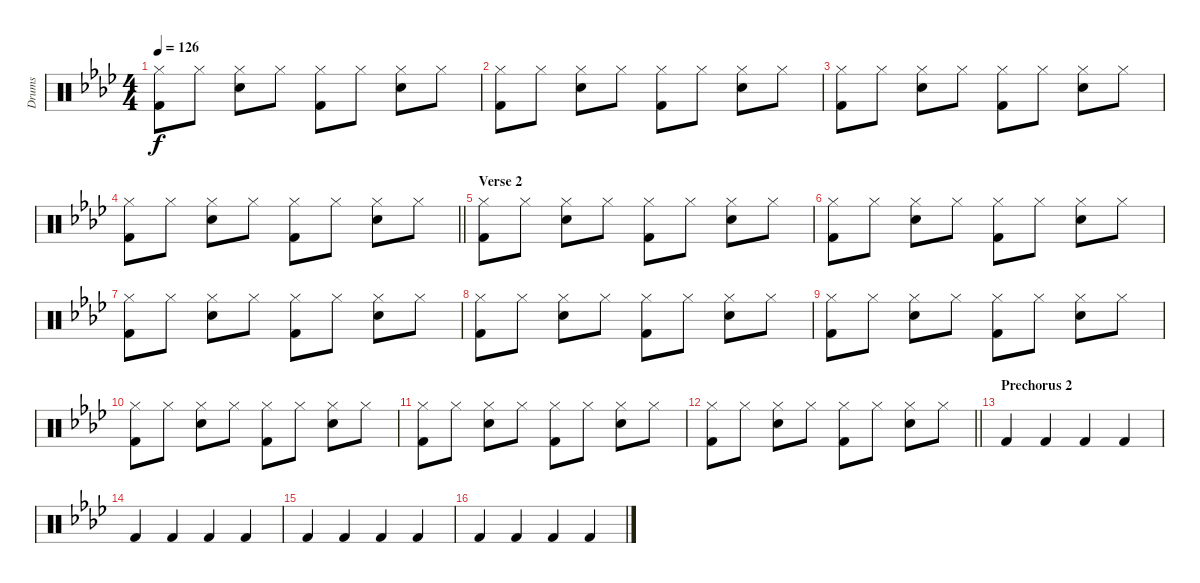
\track ("Drums" "Drums") {instrument percussion}
\staff {score}
\articulation defaults
\ts (4 4)
\tempo 126
\clef neutral
\ks ab
("Hi-Hat (closed)" "Kick (hit) 2").8{dy f} "Hi-Hat (closed)".8 ("Hi-Hat (closed)" "Electric Snare (hit)").8 "Hi-Hat (closed)".8 ("Hi-Hat (closed)" "Kick (hit) 2").8 "Hi-Hat (closed)".8 ("Hi-Hat (closed)" "Electric Snare (hit)").8 "Hi-Hat (closed)".8 |
("Hi-Hat (closed)" "Kick (hit) 2").8 "Hi-Hat (closed)".8 ("Hi-Hat (closed)" "Electric Snare (hit)").8 "Hi-Hat (closed)".8 ("Hi-Hat (closed)" "Kick (hit) 2").8 "Hi-Hat (closed)".8 ("Hi-Hat (closed)" "Electric Snare (hit)").8 "Hi-Hat (closed)".8 |
("Hi-Hat (closed)" "Kick (hit) 2").8 "Hi-Hat (closed)".8 ("Hi-Hat (closed)" "Electric Snare (hit)").8 "Hi-Hat (closed)".8 ("Hi-Hat (closed)" "Kick (hit) 2").8 "Hi-Hat (closed)".8 ("Hi-Hat (closed)" "Electric Snare (hit)").8 "Hi-Hat (closed)".8 |
\barLineRight lightlight
("Hi-Hat (closed)" "Kick (hit) 2").8 "Hi-Hat (closed)".8 ("Hi-Hat (closed)" "Electric Snare (hit)").8 "Hi-Hat (closed)".8 ("Hi-Hat (closed)" "Kick (hit) 2").8 "Hi-Hat (closed)".8 ("Hi-Hat (closed)" "Electric Snare (hit)").8 "Hi-Hat (closed)".8 |
\section ("" "Verse 2")
("Hi-Hat (closed)" "Kick (hit) 2").8 "Hi-Hat (closed)".8 ("Hi-Hat (closed)" "Electric Snare (hit)").8 "Hi-Hat (closed)".8 ("Hi-Hat (closed)" "Kick (hit) 2").8 "Hi-Hat (closed)".8 ("Hi-Hat (closed)" "Electric Snare (hit)").8 "Hi-Hat (closed)".8 |
("Hi-Hat (closed)" "Kick (hit) 2").8 "Hi-Hat (closed)".8 ("Hi-Hat (closed)" "Electric Snare (hit)").8 "Hi-Hat (closed)".8 ("Hi-Hat (closed)" "Kick (hit) 2").8 "Hi-Hat (closed)".8 ("Hi-Hat (closed)" "Electric Snare (hit)").8 "Hi-Hat (closed)".8 |
("Hi-Hat (closed)" "Kick (hit) 2").8 "Hi-Hat (closed)".8 ("Hi-Hat (closed)" "Electric Snare (hit)").8 "Hi-Hat (closed)".8 ("Hi-Hat (closed)" "Kick (hit) 2").8 "Hi-Hat (closed)".8 ("Hi-Hat (closed)" "Electric Snare (hit)").8 "Hi-Hat (closed)".8 |
("Hi-Hat (closed)" "Kick (hit) 2").8 "Hi-Hat (closed)".8 ("Hi-Hat (closed)" "Electric Snare (hit)").8 "Hi-Hat (closed)".8 ("Hi-Hat (closed)" "Kick (hit) 2").8 "Hi-Hat (closed)".8 ("Hi-Hat (closed)" "Electric Snare (hit)").8 "Hi-Hat (closed)".8 |
("Hi-Hat (closed)" "Kick (hit) 2").8 "Hi-Hat (closed)".8 ("Hi-Hat (closed)" "Electric Snare (hit)").8 "Hi-Hat (closed)".8 ("Hi-Hat (closed)" "Kick (hit) 2").8 "Hi-Hat (closed)".8 ("Hi-Hat (closed)" "Electric Snare (hit)").8 "Hi-Hat (closed)".8 |
("Hi-Hat (closed)" "Kick (hit) 2").8 "Hi-Hat (closed)".8 ("Hi-Hat (closed)" "Electric Snare (hit)").8 "Hi-Hat (closed)".8 ("Hi-Hat (closed)" "Kick (hit) 2").8 "Hi-Hat (closed)".8 ("Hi-Hat (closed)" "Electric Snare (hit)").8 "Hi-Hat (closed)".8 |
("Hi-Hat (closed)" "Kick (hit) 2").8 "Hi-Hat (closed)".8 ("Hi-Hat (closed)" "Electric Snare (hit)").8 "Hi-Hat (closed)".8 ("Hi-Hat (closed)" "Kick (hit) 2").8 "Hi-Hat (closed)".8 ("Hi-Hat (closed)" "Electric Snare (hit)").8 "Hi-Hat (closed)".8 |
\barLineRight lightlight
("Hi-Hat (closed)" "Kick (hit) 2").8 "Hi-Hat (closed)".8 ("Hi-Hat (closed)" "Electric Snare (hit)").8 "Hi-Hat (closed)".8 ("Hi-Hat (closed)" "Kick (hit) 2").8 "Hi-Hat (closed)".8 ("Hi-Hat (closed)" "Electric Snare (hit)").8 "Hi-Hat (closed)".8 |
\section ("" "Prechorus 2")
"Kick (hit) 2".4 "Kick (hit) 2".4 "Kick (hit) 2".4 "Kick (hit) 2".4 |
"Kick (hit) 2".4 "Kick (hit) 2".4 "Kick (hit) 2".4 "Kick (hit) 2".4 |
"Kick (hit) 2".4 "Kick (hit) 2".4 "Kick (hit) 2".4 "Kick (hit) 2".4 |
"Kick (hit) 2".4 "Kick (hit) 2".4 "Kick (hit) 2".4 "Kick (hit) 2".4
